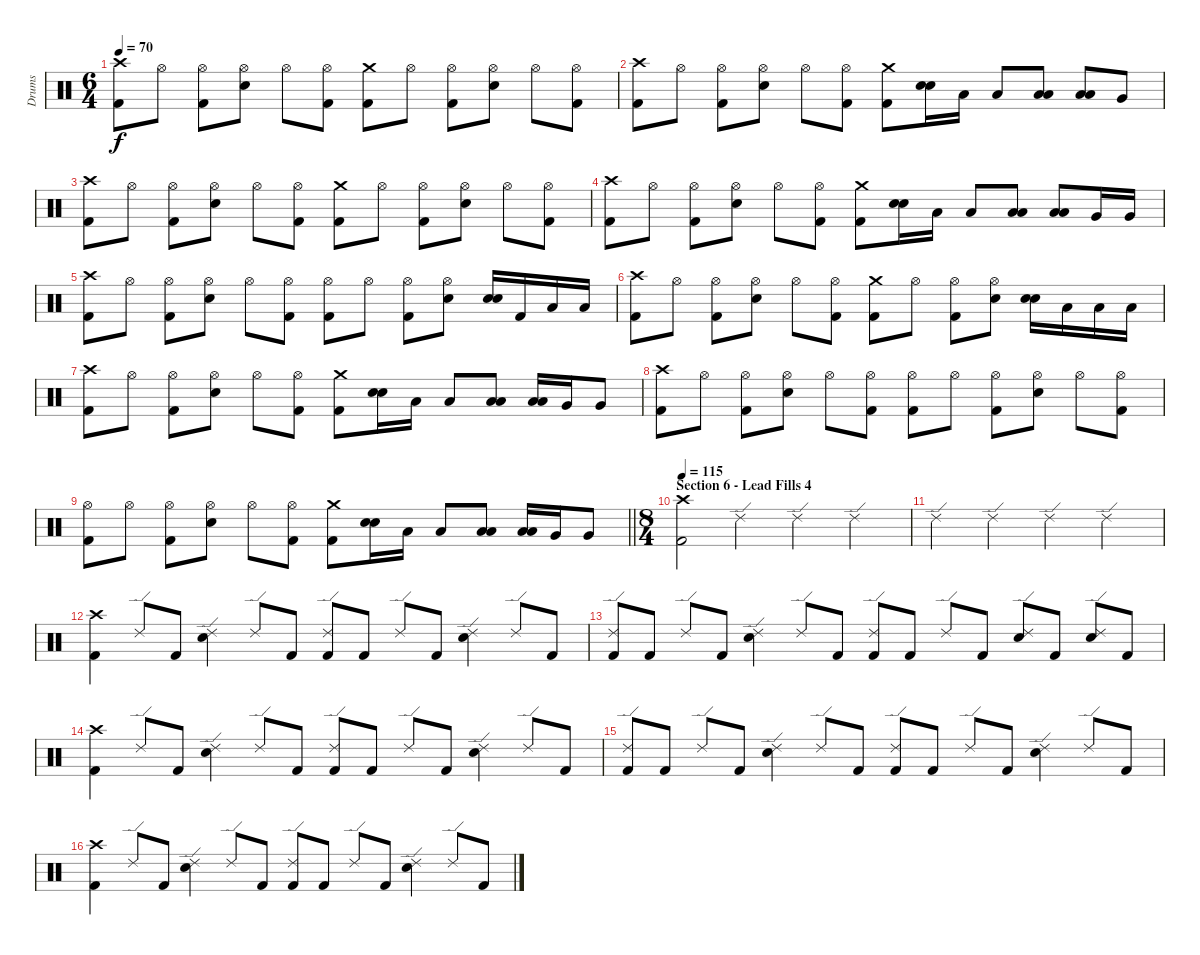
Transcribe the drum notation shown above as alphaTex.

\track ("Drums" "Drums") {instrument percussion}
\staff {score}
\articulation defaults
\ts (6 4)
\tempo 70
\clef neutral
\ks c
("Crash high (hit)" "Kick (hit) 2").8{dy f} "Hi-Hat (open)".8 ("Hi-Hat (open)" "Kick (hit) 2").8 ("Hi-Hat (open)" "Electric Snare (hit)").8 "Hi-Hat (open)".8 ("Hi-Hat (open)" "Kick (hit) 2").8 ("Crash medium (hit)" "Kick (hit) 2").8 "Hi-Hat (open)".8 ("Hi-Hat (open)" "Kick (hit) 2").8 ("Hi-Hat (open)" "Electric Snare (hit)").8 "Hi-Hat (open)".8 ("Hi-Hat (open)" "Kick (hit) 2").8 |
("Crash high (hit)" "Kick (hit) 2").8 "Hi-Hat (open)".8 ("Hi-Hat (open)" "Kick (hit) 2").8 ("Hi-Hat (open)" "Electric Snare (hit)").8 "Hi-Hat (open)".8 ("Hi-Hat (open)" "Kick (hit) 2").8 ("Crash medium (hit)" "Kick (hit) 2").8 ("Electric Snare (hit)" "Electric Snare (hit)").16{bu 60} "Low Tom (hit)".16 "Low Tom (hit)".8 ("Low Tom (hit)" "Low Tom (hit)").8{bu 60} ("Low Tom (hit)" "Low Tom (hit)").8{bu 60} "Very Low Tom (hit)".8 |
("Crash high (hit)" "Kick (hit) 2").8 "Hi-Hat (open)".8 ("Hi-Hat (open)" "Kick (hit) 2").8 ("Hi-Hat (open)" "Electric Snare (hit)").8 "Hi-Hat (open)".8 ("Hi-Hat (open)" "Kick (hit) 2").8 ("Crash medium (hit)" "Kick (hit) 2").8 "Hi-Hat (open)".8 ("Hi-Hat (open)" "Kick (hit) 2").8 ("Hi-Hat (open)" "Electric Snare (hit)").8 "Hi-Hat (open)".8 ("Hi-Hat (open)" "Kick (hit) 2").8 |
("Crash high (hit)" "Kick (hit) 2").8 "Hi-Hat (open)".8 ("Hi-Hat (open)" "Kick (hit) 2").8 ("Hi-Hat (open)" "Electric Snare (hit)").8 "Hi-Hat (open)".8 ("Hi-Hat (open)" "Kick (hit) 2").8 ("Crash medium (hit)" "Kick (hit) 2").8 ("Electric Snare (hit)" "Electric Snare (hit)").16{bu 60} "Low Tom (hit)".16 "Low Tom (hit)".8 ("Low Tom (hit)" "Low Tom (hit)").8{bu 60} ("Low Tom (hit)" "Low Tom (hit)").8{bu 60} "Very Low Tom (hit)".16 "Very Low Tom (hit)".16 |
("Crash high (hit)" "Kick (hit) 2").8 "Hi-Hat (open)".8 ("Hi-Hat (open)" "Kick (hit) 2").8 ("Hi-Hat (open)" "Electric Snare (hit)").8 "Hi-Hat (open)".8 ("Hi-Hat (open)" "Kick (hit) 2").8 ("Hi-Hat (open)" "Kick (hit) 2").8 "Hi-Hat (open)".8 ("Hi-Hat (open)" "Kick (hit) 2").8 ("Hi-Hat (open)" "Electric Snare (hit)").8 ("Electric Snare (hit)" "Electric Snare (hit)").16{bu 60} "Kick (hit) 2".16 "Low Tom (hit)".16 "Low Tom (hit)".16 |
("Crash high (hit)" "Kick (hit) 2").8 "Hi-Hat (open)".8 ("Hi-Hat (open)" "Kick (hit) 2").8 ("Hi-Hat (open)" "Electric Snare (hit)").8 "Hi-Hat (open)".8 ("Hi-Hat (open)" "Kick (hit) 2").8 ("Crash medium (hit)" "Kick (hit) 2").8 "Hi-Hat (open)".8 ("Hi-Hat (open)" "Kick (hit) 2").8 ("Hi-Hat (open)" "Electric Snare (hit)").8 ("Electric Snare (hit)" "Electric Snare (hit)").16{bu 60} "Low Tom (hit)".16 "Low Tom (hit)".16 "Low Tom (hit)".16 |
("Crash high (hit)" "Kick (hit) 2").8 "Hi-Hat (open)".8 ("Hi-Hat (open)" "Kick (hit) 2").8 ("Hi-Hat (open)" "Electric Snare (hit)").8 "Hi-Hat (open)".8 ("Hi-Hat (open)" "Kick (hit) 2").8 ("Crash medium (hit)" "Kick (hit) 2").8 ("Electric Snare (hit)" "Electric Snare (hit)").16{bu 60} "Low Tom (hit)".16 "Low Tom (hit)".8 ("Low Tom (hit)" "Low Tom (hit)").8{bu 60} ("Low Tom (hit)" "Low Tom (hit)").16{bu 60} "Very Low Tom (hit)".16 "Very Low Tom (hit)".8 |
("Crash high (hit)" "Kick (hit) 2").8 "Hi-Hat (open)".8 ("Hi-Hat (open)" "Kick (hit) 2").8 ("Hi-Hat (open)" "Electric Snare (hit)").8 "Hi-Hat (open)".8 ("Hi-Hat (open)" "Kick (hit) 2").8 ("Hi-Hat (open)" "Kick (hit) 2").8 "Hi-Hat (open)".8 ("Hi-Hat (open)" "Kick (hit) 2").8 ("Hi-Hat (open)" "Electric Snare (hit)").8 "Hi-Hat (open)".8 ("Hi-Hat (open)" "Kick (hit) 2").8 |
\barLineRight lightlight
("Hi-Hat (open)" "Kick (hit) 2").8 "Hi-Hat (open)".8 ("Hi-Hat (open)" "Kick (hit) 2").8 ("Hi-Hat (open)" "Electric Snare (hit)").8 "Hi-Hat (open)".8 ("Hi-Hat (open)" "Kick (hit) 2").8 ("Crash medium (hit)" "Kick (hit) 2").8 ("Electric Snare (hit)" "Electric Snare (hit)").16{bu 60} "Low Tom (hit)".16 "Low Tom (hit)".8 ("Low Tom (hit)" "Low Tom (hit)").8{bu 60} ("Low Tom (hit)" "Low Tom (hit)").16{bu 60} "Very Low Tom (hit)".16 "Very Low Tom (hit)".8 |
\ts (8 4)
\section ("" "Section 6 - Lead Fills 4")
\tempo 115
("Crash high (hit)" "Kick (hit) 2").2 "Ride (edge) 2".2 "Ride (edge) 2".2 "Ride (edge) 2".2 |
"Ride (edge) 2".2 "Ride (edge) 2".2 "Ride (edge) 2".2 "Ride (edge) 2".2 |
("Crash high (hit)" "Kick (hit) 2").4 "Ride (edge) 2".8 "Kick (hit) 2".8 ("Ride (edge) 2" "Electric Snare (hit)").4 "Ride (edge) 2".8 "Kick (hit) 2".8 ("Ride (edge) 2" "Kick (hit) 2").8 "Kick (hit) 2".8 "Ride (edge) 2".8 "Kick (hit) 2".8 ("Ride (edge) 2" "Electric Snare (hit)").4 "Ride (edge) 2".8 "Kick (hit) 2".8 |
("Ride (edge) 2" "Kick (hit) 2").8 "Kick (hit) 2".8 "Ride (edge) 2".8 "Kick (hit) 2".8 ("Ride (edge) 2" "Electric Snare (hit)").4 "Ride (edge) 2".8 "Kick (hit) 2".8 ("Ride (edge) 2" "Kick (hit) 2").8 "Kick (hit) 2".8 "Ride (edge) 2".8 "Kick (hit) 2".8 ("Ride (edge) 2" "Electric Snare (hit)").8 "Kick (hit) 2".8 ("Ride (edge) 2" "Electric Snare (hit)").8 "Kick (hit) 2".8 |
("Crash high (hit)" "Kick (hit) 2").4 "Ride (edge) 2".8 "Kick (hit) 2".8 ("Ride (edge) 2" "Electric Snare (hit)").4 "Ride (edge) 2".8 "Kick (hit) 2".8 ("Ride (edge) 2" "Kick (hit) 2").8 "Kick (hit) 2".8 "Ride (edge) 2".8 "Kick (hit) 2".8 ("Ride (edge) 2" "Electric Snare (hit)").4 "Ride (edge) 2".8 "Kick (hit) 2".8 |
("Ride (edge) 2" "Kick (hit) 2").8 "Kick (hit) 2".8 "Ride (edge) 2".8 "Kick (hit) 2".8 ("Ride (edge) 2" "Electric Snare (hit)").4 "Ride (edge) 2".8 "Kick (hit) 2".8 ("Ride (edge) 2" "Kick (hit) 2").8 "Kick (hit) 2".8 "Ride (edge) 2".8 "Kick (hit) 2".8 ("Ride (edge) 2" "Electric Snare (hit)").4 "Ride (edge) 2".8 "Kick (hit) 2".8 |
("Crash high (hit)" "Kick (hit) 2").4 "Ride (edge) 2".8 "Kick (hit) 2".8 ("Ride (edge) 2" "Electric Snare (hit)").4 "Ride (edge) 2".8 "Kick (hit) 2".8 ("Ride (edge) 2" "Kick (hit) 2").8 "Kick (hit) 2".8 "Ride (edge) 2".8 "Kick (hit) 2".8 ("Ride (edge) 2" "Electric Snare (hit)").4 "Ride (edge) 2".8 "Kick (hit) 2".8
